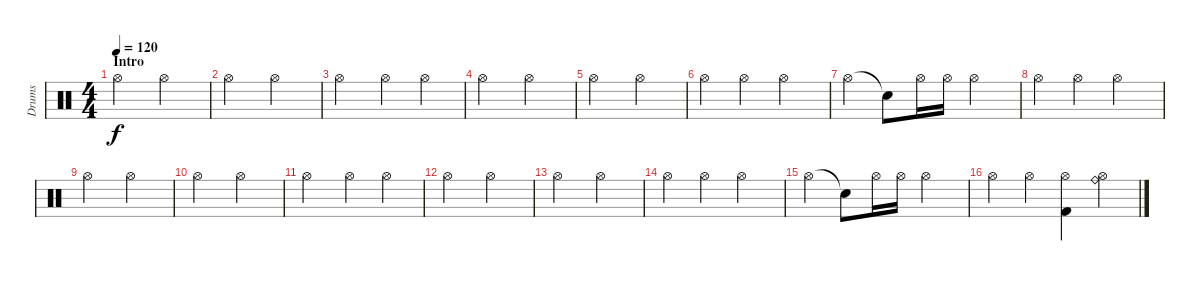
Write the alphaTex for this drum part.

\track ("Drums" "Drums") {instrument percussion}
\staff {score}
\articulation defaults
\ts (4 4)
\section ("" "Intro")
\tempo 120
\clef neutral
\ks c "Hi-Hat (open)".2{dy f} "Hi-Hat (open)".2
|
"Hi-Hat (open)".2 "Hi-Hat (open)".2 |
"Hi-Hat (open)".2 "Hi-Hat (open)".4 "Hi-Hat (open)".4 |
"Hi-Hat (open)".2 "Hi-Hat (open)".2 |
"Hi-Hat (open)".2 "Hi-Hat (open)".2 |
"Hi-Hat (open)".4 "Hi-Hat (open)".4 "Hi-Hat (open)".2 |
"Hi-Hat (open)".4 "Snare (hit)"{t}.8 "Hi-Hat (open)".16 "Hi-Hat (open)".16 "Hi-Hat (open)".2 |
"Hi-Hat (open)".4 "Hi-Hat (open)".4 "Hi-Hat (open)".2 |
"Hi-Hat (open)".2 "Hi-Hat (open)".2 |
"Hi-Hat (open)".2 "Hi-Hat (open)".2 |
"Hi-Hat (open)".2 "Hi-Hat (open)".4 "Hi-Hat (open)".4 |
"Hi-Hat (open)".2 "Hi-Hat (open)".2 |
"Hi-Hat (open)".2 "Hi-Hat (open)".2 |
"Hi-Hat (open)".4 "Hi-Hat (open)".4 "Hi-Hat (open)".2 |
"Hi-Hat (open)".4 "Snare (hit)"{t}.8 "Hi-Hat (open)".16 "Hi-Hat (open)".16 "Hi-Hat (open)".2 |
"Hi-Hat (open)".4 "Hi-Hat (open)".4 ("Hi-Hat (open)" "Kick (hit) 2").4 ("Hi-Hat (open)" "Ride (bell)").4
